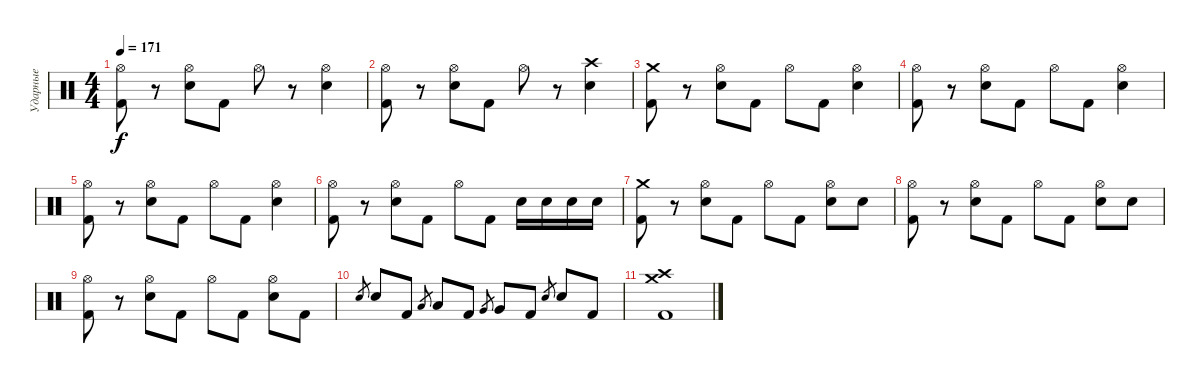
\track ("Ударные" "Ударные") {instrument percussion}
\staff {score}
\articulation defaults
\ts (4 4)
\tempo 171
\clef neutral
\ks c
("Hi-Hat (open)" "Kick (hit) 2").8{dy f} r.8 ("Hi-Hat (open)" "Electric Snare (hit)").8 "Kick (hit) 2".8 "Hi-Hat (open)".8 r.8 ("Hi-Hat (open)" "Electric Snare (hit)").4 |
("Hi-Hat (open)" "Kick (hit) 2").8 r.8 ("Hi-Hat (open)" "Electric Snare (hit)").8 "Kick (hit) 2".8 "Hi-Hat (open)".8 r.8 ("Crash high (hit)" "Electric Snare (hit)").4 |
("Crash medium (hit)" "Kick (hit) 2").8 r.8 ("Hi-Hat (open)" "Electric Snare (hit)").8 "Kick (hit) 2".8 "Hi-Hat (open)".8 "Kick (hit) 2".8 ("Hi-Hat (open)" "Electric Snare (hit)").4 |
("Hi-Hat (open)" "Kick (hit) 2").8 r.8 ("Hi-Hat (open)" "Electric Snare (hit)").8 "Kick (hit) 2".8 "Hi-Hat (open)".8 "Kick (hit) 2".8 ("Hi-Hat (open)" "Electric Snare (hit)").4 |
("Hi-Hat (open)" "Kick (hit) 2").8 r.8 ("Hi-Hat (open)" "Electric Snare (hit)").8 "Kick (hit) 2".8 "Hi-Hat (open)".8 "Kick (hit) 2".8 ("Hi-Hat (open)" "Electric Snare (hit)").4 |
("Hi-Hat (open)" "Kick (hit) 2").8 r.8 ("Hi-Hat (open)" "Electric Snare (hit)").8 "Kick (hit) 2".8 "Hi-Hat (open)".8 "Kick (hit) 2".8 "Electric Snare (hit)".16 "Electric Snare (hit)".16 "Electric Snare (hit)".16 "Electric Snare (hit)".16 |
("Crash medium (hit)" "Kick (hit) 2").8 r.8 ("Hi-Hat (open)" "Electric Snare (hit)").8 "Kick (hit) 2".8 "Hi-Hat (open)".8 "Kick (hit) 2".8 ("Hi-Hat (open)" "Electric Snare (hit)").8 "Electric Snare (hit)".8 |
("Hi-Hat (open)" "Kick (hit) 2").8 r.8 ("Hi-Hat (open)" "Electric Snare (hit)").8 "Kick (hit) 2".8 "Hi-Hat (open)".8 "Kick (hit) 2".8 ("Hi-Hat (open)" "Electric Snare (hit)").8 "Electric Snare (hit)".8 |
("Hi-Hat (open)" "Kick (hit) 2").8 r.8 ("Hi-Hat (open)" "Electric Snare (hit)").8 "Kick (hit) 2".8 "Hi-Hat (open)".8 "Kick (hit) 2".8 ("Hi-Hat (open)" "Electric Snare (hit)").8 "Kick (hit) 2".8 |
"Electric Snare (hit)".8{gr} "Electric Snare (hit)".8 "Kick (hit) 2".8 "Low Tom (hit)".8{gr} "Low Tom (hit)".8 "Kick (hit) 2".8 "Very Low Tom (hit)".8{gr} "Very Low Tom (hit)".8 "Kick (hit) 2".8 "Electric Snare (hit)".8{gr} "Electric Snare (hit)".8 "Kick (hit) 2".8 |
("Crash medium (hit)" "Crash high (hit)" "Kick (hit) 2").1
